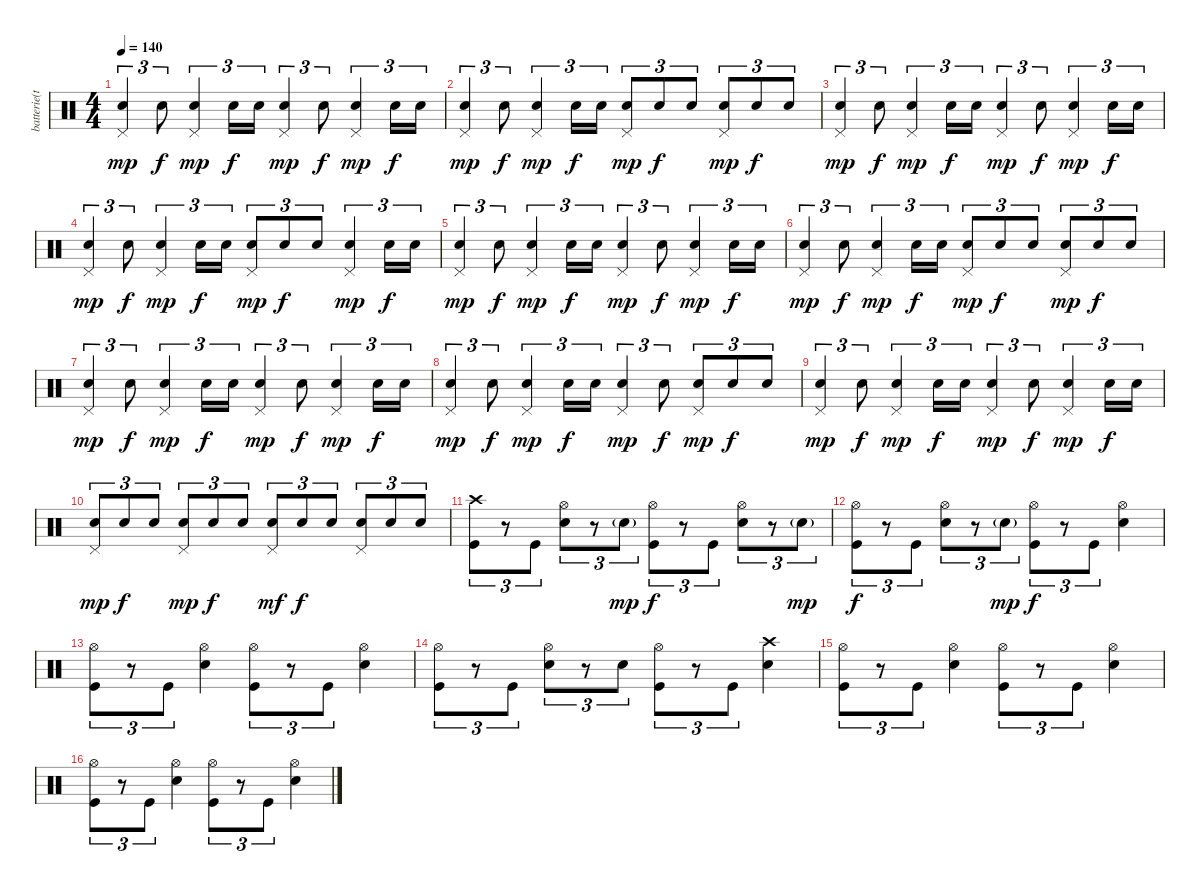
\track ("batterie(tré)" "batterie(t") {instrument percussion}
\staff {score}
\articulation defaults
\ts (4 4)
\tempo 140
\clef neutral
\ks c
("Electric Snare (hit)" "Pedal Hi-Hat (hit)").4{tu (3 2) dy mp} "Electric Snare (hit)".8{tu (3 2) dy f} ("Electric Snare (hit)" "Pedal Hi-Hat (hit)").4{tu (3 2) dy mp} "Electric Snare (hit)".16{tu (3 2) dy f} "Electric Snare (hit)".16{tu (3 2)} ("Electric Snare (hit)" "Pedal Hi-Hat (hit)").4{tu (3 2) dy mp} "Electric Snare (hit)".8{tu (3 2) dy f} ("Electric Snare (hit)" "Pedal Hi-Hat (hit)").4{tu (3 2) dy mp} "Electric Snare (hit)".16{tu (3 2) dy f} "Electric Snare (hit)".16{tu (3 2)} |
("Electric Snare (hit)" "Pedal Hi-Hat (hit)").4{tu (3 2) dy mp} "Electric Snare (hit)".8{tu (3 2) dy f} ("Electric Snare (hit)" "Pedal Hi-Hat (hit)").4{tu (3 2) dy mp} "Electric Snare (hit)".16{tu (3 2) dy f} "Electric Snare (hit)".16{tu (3 2)} ("Electric Snare (hit)" "Pedal Hi-Hat (hit)").8{tu (3 2) dy mp} "Electric Snare (hit)".8{tu (3 2) dy f} "Electric Snare (hit)".8{tu (3 2)} ("Electric Snare (hit)" "Pedal Hi-Hat (hit)").8{tu (3 2) dy mp} "Electric Snare (hit)".8{tu (3 2) dy f} "Electric Snare (hit)".8{tu (3 2)} |
("Electric Snare (hit)" "Pedal Hi-Hat (hit)").4{tu (3 2) dy mp} "Electric Snare (hit)".8{tu (3 2) dy f} ("Electric Snare (hit)" "Pedal Hi-Hat (hit)").4{tu (3 2) dy mp} "Electric Snare (hit)".16{tu (3 2) dy f} "Electric Snare (hit)".16{tu (3 2)} ("Electric Snare (hit)" "Pedal Hi-Hat (hit)").4{tu (3 2) dy mp} "Electric Snare (hit)".8{tu (3 2) dy f} ("Electric Snare (hit)" "Pedal Hi-Hat (hit)").4{tu (3 2) dy mp} "Electric Snare (hit)".16{tu (3 2) dy f} "Electric Snare (hit)".16{tu (3 2)} |
("Electric Snare (hit)" "Pedal Hi-Hat (hit)").4{tu (3 2) dy mp} "Electric Snare (hit)".8{tu (3 2) dy f} ("Electric Snare (hit)" "Pedal Hi-Hat (hit)").4{tu (3 2) dy mp} "Electric Snare (hit)".16{tu (3 2) dy f} "Electric Snare (hit)".16{tu (3 2)} ("Electric Snare (hit)" "Pedal Hi-Hat (hit)").8{tu (3 2) dy mp} "Electric Snare (hit)".8{tu (3 2) dy f} "Electric Snare (hit)".8{tu (3 2)} ("Electric Snare (hit)" "Pedal Hi-Hat (hit)").4{tu (3 2) dy mp} "Electric Snare (hit)".16{tu (3 2) dy f} "Electric Snare (hit)".16{tu (3 2)} |
("Electric Snare (hit)" "Pedal Hi-Hat (hit)").4{tu (3 2) dy mp} "Electric Snare (hit)".8{tu (3 2) dy f} ("Electric Snare (hit)" "Pedal Hi-Hat (hit)").4{tu (3 2) dy mp} "Electric Snare (hit)".16{tu (3 2) dy f} "Electric Snare (hit)".16{tu (3 2)} ("Electric Snare (hit)" "Pedal Hi-Hat (hit)").4{tu (3 2) dy mp} "Electric Snare (hit)".8{tu (3 2) dy f} ("Electric Snare (hit)" "Pedal Hi-Hat (hit)").4{tu (3 2) dy mp} "Electric Snare (hit)".16{tu (3 2) dy f} "Electric Snare (hit)".16{tu (3 2)} |
("Electric Snare (hit)" "Pedal Hi-Hat (hit)").4{tu (3 2) dy mp} "Electric Snare (hit)".8{tu (3 2) dy f} ("Electric Snare (hit)" "Pedal Hi-Hat (hit)").4{tu (3 2) dy mp} "Electric Snare (hit)".16{tu (3 2) dy f} "Electric Snare (hit)".16{tu (3 2)} ("Electric Snare (hit)" "Pedal Hi-Hat (hit)").8{tu (3 2) dy mp} "Electric Snare (hit)".8{tu (3 2) dy f} "Electric Snare (hit)".8{tu (3 2)} ("Electric Snare (hit)" "Pedal Hi-Hat (hit)").8{tu (3 2) dy mp} "Electric Snare (hit)".8{tu (3 2) dy f} "Electric Snare (hit)".8{tu (3 2)} |
("Electric Snare (hit)" "Pedal Hi-Hat (hit)").4{tu (3 2) dy mp} "Electric Snare (hit)".8{tu (3 2) dy f} ("Electric Snare (hit)" "Pedal Hi-Hat (hit)").4{tu (3 2) dy mp} "Electric Snare (hit)".16{tu (3 2) dy f} "Electric Snare (hit)".16{tu (3 2)} ("Electric Snare (hit)" "Pedal Hi-Hat (hit)").4{tu (3 2) dy mp} "Electric Snare (hit)".8{tu (3 2) dy f} ("Electric Snare (hit)" "Pedal Hi-Hat (hit)").4{tu (3 2) dy mp} "Electric Snare (hit)".16{tu (3 2) dy f} "Electric Snare (hit)".16{tu (3 2)} |
("Electric Snare (hit)" "Pedal Hi-Hat (hit)").4{tu (3 2) dy mp} "Electric Snare (hit)".8{tu (3 2) dy f} ("Electric Snare (hit)" "Pedal Hi-Hat (hit)").4{tu (3 2) dy mp} "Electric Snare (hit)".16{tu (3 2) dy f} "Electric Snare (hit)".16{tu (3 2)} ("Electric Snare (hit)" "Pedal Hi-Hat (hit)").4{tu (3 2) dy mp} "Electric Snare (hit)".8{tu (3 2) dy f} ("Electric Snare (hit)" "Pedal Hi-Hat (hit)").8{tu (3 2) dy mp} "Electric Snare (hit)".8{tu (3 2) dy f} "Electric Snare (hit)".8{tu (3 2)} |
("Electric Snare (hit)" "Pedal Hi-Hat (hit)").4{tu (3 2) dy mp} "Electric Snare (hit)".8{tu (3 2) dy f} ("Electric Snare (hit)" "Pedal Hi-Hat (hit)").4{tu (3 2) dy mp} "Electric Snare (hit)".16{tu (3 2) dy f} "Electric Snare (hit)".16{tu (3 2)} ("Electric Snare (hit)" "Pedal Hi-Hat (hit)").4{tu (3 2) dy mp} "Electric Snare (hit)".8{tu (3 2) dy f} ("Electric Snare (hit)" "Pedal Hi-Hat (hit)").4{tu (3 2) dy mp} "Electric Snare (hit)".16{tu (3 2) dy f} "Electric Snare (hit)".16{tu (3 2)} |
("Electric Snare (hit)" "Pedal Hi-Hat (hit)").8{tu (3 2) dy mp} "Electric Snare (hit)".8{tu (3 2) dy f} "Electric Snare (hit)".8{tu (3 2)} ("Electric Snare (hit)" "Pedal Hi-Hat (hit)").8{tu (3 2) dy mp} "Electric Snare (hit)".8{tu (3 2) dy f} "Electric Snare (hit)".8{tu (3 2)} ("Electric Snare (hit)" "Pedal Hi-Hat (hit)").8{tu (3 2) dy mf} "Electric Snare (hit)".8{tu (3 2) dy f} "Electric Snare (hit)".8{tu (3 2)} ("Electric Snare (hit)" "Pedal Hi-Hat (hit)").8{tu (3 2)} "Electric Snare (hit)".8{tu (3 2)} "Electric Snare (hit)".8{tu (3 2)} |
("Crash high (hit)" "Kick (hit)").8{tu (3 2)} r.8{tu (3 2)} "Kick (hit)".8{tu (3 2)} ("Hi-Hat (open)" "Electric Snare (hit)").8{tu (3 2)} r.8{tu (3 2)} "Electric Snare (hit)"{g}.8{tu (3 2) dy mp} ("Hi-Hat (open)" "Kick (hit)").8{tu (3 2) dy f} r.8{tu (3 2)} "Kick (hit)".8{tu (3 2)} ("Hi-Hat (open)" "Electric Snare (hit)").8{tu (3 2)} r.8{tu (3 2)} "Electric Snare (hit)"{g}.8{tu (3 2) dy mp} |
("Hi-Hat (open)" "Kick (hit)").8{tu (3 2) dy f} r.8{tu (3 2)} "Kick (hit)".8{tu (3 2)} ("Hi-Hat (open)" "Electric Snare (hit)").8{tu (3 2)} r.8{tu (3 2)} "Electric Snare (hit)"{g}.8{tu (3 2) dy mp} ("Hi-Hat (open)" "Kick (hit)").8{tu (3 2) dy f} r.8{tu (3 2)} "Kick (hit)".8{tu (3 2)} ("Hi-Hat (open)" "Electric Snare (hit)").4 |
("Hi-Hat (open)" "Kick (hit)").8{tu (3 2)} r.8{tu (3 2)} "Kick (hit)".8{tu (3 2)} ("Hi-Hat (open)" "Electric Snare (hit)").4 ("Hi-Hat (open)" "Kick (hit)").8{tu (3 2)} r.8{tu (3 2)} "Kick (hit)".8{tu (3 2)} ("Hi-Hat (open)" "Electric Snare (hit)").4 |
("Hi-Hat (open)" "Kick (hit)").8{tu (3 2)} r.8{tu (3 2)} "Kick (hit)".8{tu (3 2)} ("Hi-Hat (open)" "Electric Snare (hit)").8{tu (3 2)} r.8{tu (3 2)} "Electric Snare (hit)".8{tu (3 2)} ("Hi-Hat (open)" "Kick (hit)").8{tu (3 2)} r.8{tu (3 2)} "Kick (hit)".8{tu (3 2)} ("Crash high (hit)" "Electric Snare (hit)").4 |
("Hi-Hat (open)" "Kick (hit)").8{tu (3 2)} r.8{tu (3 2)} "Kick (hit)".8{tu (3 2)} ("Hi-Hat (open)" "Electric Snare (hit)").4 ("Hi-Hat (open)" "Kick (hit)").8{tu (3 2)} r.8{tu (3 2)} "Kick (hit)".8{tu (3 2)} ("Hi-Hat (open)" "Electric Snare (hit)").4 |
("Hi-Hat (open)" "Kick (hit)").8{tu (3 2)} r.8{tu (3 2)} "Kick (hit)".8{tu (3 2)} ("Hi-Hat (open)" "Electric Snare (hit)").4 ("Hi-Hat (open)" "Kick (hit)").8{tu (3 2)} r.8{tu (3 2)} "Kick (hit)".8{tu (3 2)} ("Hi-Hat (open)" "Electric Snare (hit)").4
